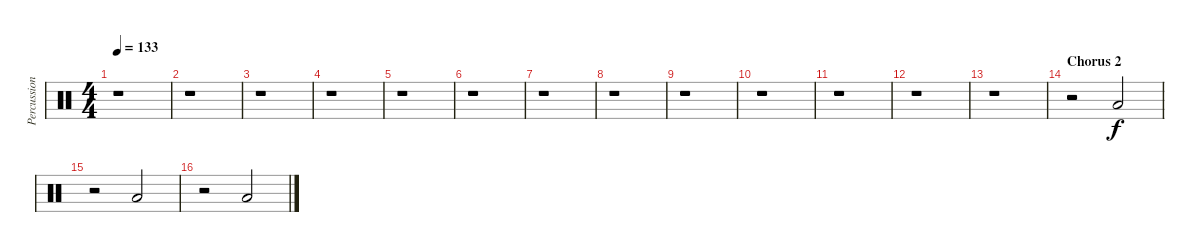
\track ("Percussion" "Percussion") {instrument percussion}
\staff {score}
\articulation defaults
\ts (4 4)
\tempo 133
\clef neutral
\ks c
r.1{dy f} |
r.1 |
r.1 |
r.1 |
r.1 |
r.1 |
r.1 |
r.1 |
r.1 |
r.1 |
r.1 |
r.1 |
r.1 |
\section ("" "Chorus 2")
r.2 "Low Tom (hit)".2 |
r.2 "Low Tom (hit)".2 |
r.2 "Low Tom (hit)".2
